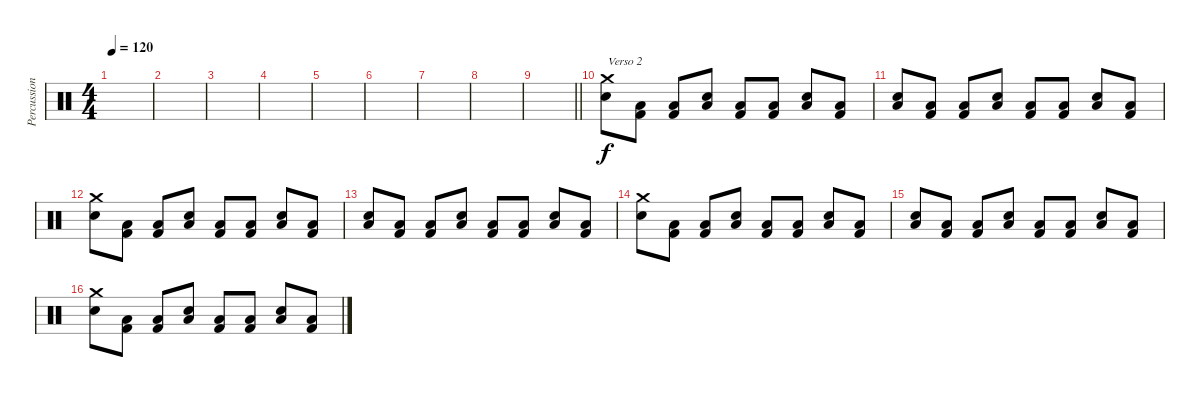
\track ("Percussion" "Percussion") {instrument percussion}
\staff {score}
\articulation defaults
\ts (4 4)
\tempo 120
\clef neutral
\ks c
|
|
|
|
|
|
|
|
\barLineRight lightlight
|
("Crash medium (hit)" "Snare (hit) 2").8{txt "Verso 2"} ("Low Floor Tom (hit)" "Kick (hit) 2").8 ("Low Floor Tom (hit)" "Kick (hit) 2").8 ("Snare (hit) 2" "Low Floor Tom (hit)").8 ("Low Floor Tom (hit)" "Kick (hit) 2").8 ("Low Floor Tom (hit)" "Kick (hit) 2").8 ("Snare (hit) 2" "Low Floor Tom (hit)").8 ("Low Floor Tom (hit)" "Kick (hit) 2").8 |
("Snare (hit) 2" "Low Floor Tom (hit)").8 ("Low Floor Tom (hit)" "Kick (hit) 2").8 ("Low Floor Tom (hit)" "Kick (hit) 2").8 ("Snare (hit) 2" "Low Floor Tom (hit)").8 ("Low Floor Tom (hit)" "Kick (hit) 2").8 ("Low Floor Tom (hit)" "Kick (hit) 2").8 ("Snare (hit) 2" "Low Floor Tom (hit)").8 ("Low Floor Tom (hit)" "Kick (hit) 2").8 |
("Crash medium (hit)" "Snare (hit) 2").8 ("Low Floor Tom (hit)" "Kick (hit) 2").8 ("Low Floor Tom (hit)" "Kick (hit) 2").8 ("Snare (hit) 2" "Low Floor Tom (hit)").8 ("Low Floor Tom (hit)" "Kick (hit) 2").8 ("Low Floor Tom (hit)" "Kick (hit) 2").8 ("Snare (hit) 2" "Low Floor Tom (hit)").8 ("Low Floor Tom (hit)" "Kick (hit) 2").8 |
("Snare (hit) 2" "Low Floor Tom (hit)").8 ("Low Floor Tom (hit)" "Kick (hit) 2").8 ("Low Floor Tom (hit)" "Kick (hit) 2").8 ("Snare (hit) 2" "Low Floor Tom (hit)").8 ("Low Floor Tom (hit)" "Kick (hit) 2").8 ("Low Floor Tom (hit)" "Kick (hit) 2").8 ("Snare (hit) 2" "Low Floor Tom (hit)").8 ("Low Floor Tom (hit)" "Kick (hit) 2").8 |
("Crash medium (hit)" "Snare (hit) 2").8 ("Low Floor Tom (hit)" "Kick (hit) 2").8 ("Low Floor Tom (hit)" "Kick (hit) 2").8 ("Snare (hit) 2" "Low Floor Tom (hit)").8 ("Low Floor Tom (hit)" "Kick (hit) 2").8 ("Low Floor Tom (hit)" "Kick (hit) 2").8 ("Snare (hit) 2" "Low Floor Tom (hit)").8 ("Low Floor Tom (hit)" "Kick (hit) 2").8 |
("Snare (hit) 2" "Low Floor Tom (hit)").8 ("Low Floor Tom (hit)" "Kick (hit) 2").8 ("Low Floor Tom (hit)" "Kick (hit) 2").8 ("Snare (hit) 2" "Low Floor Tom (hit)").8 ("Low Floor Tom (hit)" "Kick (hit) 2").8 ("Low Floor Tom (hit)" "Kick (hit) 2").8 ("Snare (hit) 2" "Low Floor Tom (hit)").8 ("Low Floor Tom (hit)" "Kick (hit) 2").8 |
("Crash medium (hit)" "Snare (hit) 2").8 ("Low Floor Tom (hit)" "Kick (hit) 2").8 ("Low Floor Tom (hit)" "Kick (hit) 2").8 ("Snare (hit) 2" "Low Floor Tom (hit)").8 ("Low Floor Tom (hit)" "Kick (hit) 2").8 ("Low Floor Tom (hit)" "Kick (hit) 2").8 ("Snare (hit) 2" "Low Floor Tom (hit)").8 ("Low Floor Tom (hit)" "Kick (hit) 2").8
